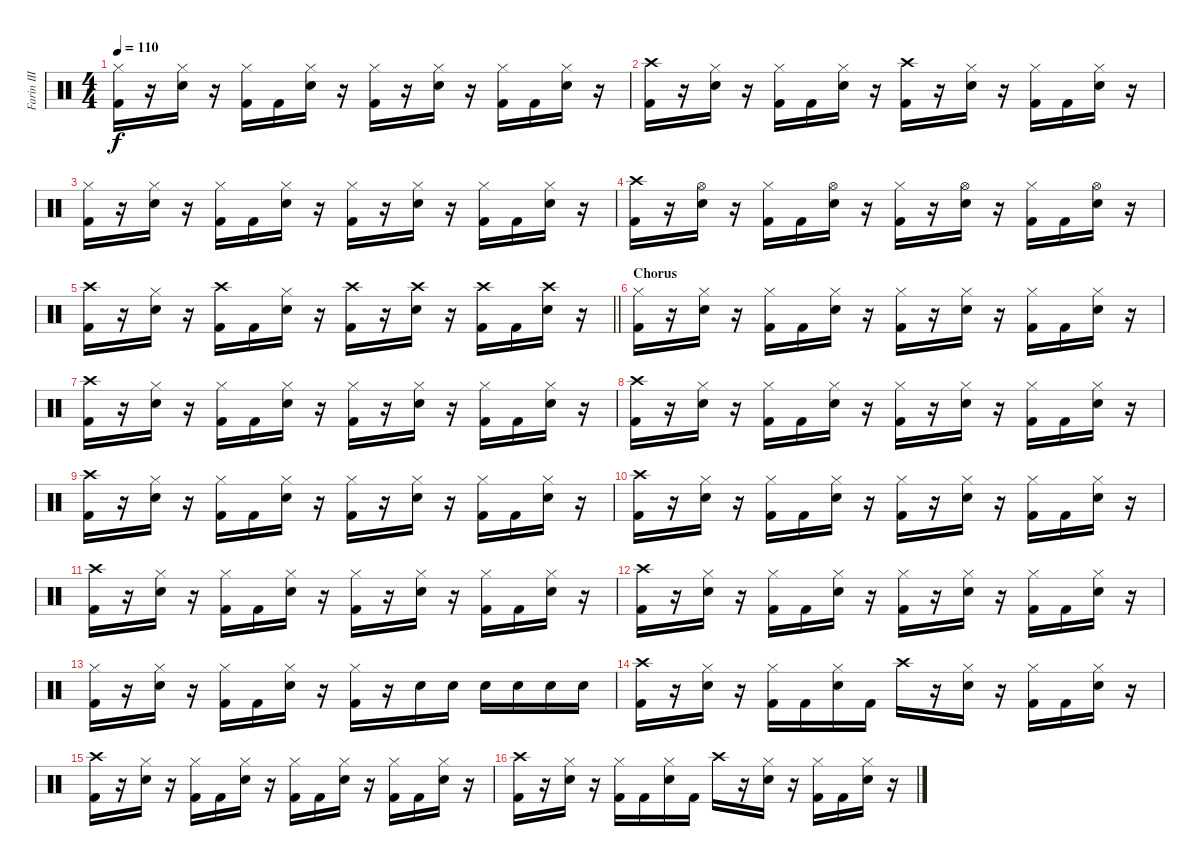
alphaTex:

\track ("Farin III" "Farin III") {instrument percussion}
\staff {score}
\articulation defaults
\ts (4 4)
\tempo 110
\clef neutral
\ks c
("Hi-Hat (closed)" "Kick (hit) 2").16{dy f} r.16 ("Hi-Hat (closed)" "Snare (hit) 2").16 r.16 ("Hi-Hat (closed)" "Kick (hit) 2").16 "Kick (hit) 2".16 ("Hi-Hat (closed)" "Snare (hit) 2").16 r.16 ("Hi-Hat (closed)" "Kick (hit) 2").16 r.16 ("Hi-Hat (closed)" "Snare (hit) 2").16 r.16 ("Hi-Hat (closed)" "Kick (hit) 2").16 "Kick (hit) 2".16 ("Hi-Hat (closed)" "Snare (hit) 2").16 r.16 |
("Crash high (hit)" "Kick (hit) 2").16 r.16 ("Hi-Hat (closed)" "Snare (hit) 2").16 r.16 ("Hi-Hat (closed)" "Kick (hit) 2").16 "Kick (hit) 2".16 ("Hi-Hat (closed)" "Snare (hit) 2").16 r.16 ("Crash high (hit)" "Kick (hit) 2").16 r.16 ("Hi-Hat (closed)" "Snare (hit) 2").16 r.16 ("Hi-Hat (closed)" "Kick (hit) 2").16 "Kick (hit) 2".16 ("Hi-Hat (closed)" "Snare (hit) 2").16 r.16 |
("Hi-Hat (closed)" "Kick (hit) 2").16 r.16 ("Hi-Hat (closed)" "Snare (hit) 2").16 r.16 ("Hi-Hat (closed)" "Kick (hit) 2").16 "Kick (hit) 2".16 ("Hi-Hat (closed)" "Snare (hit) 2").16 r.16 ("Hi-Hat (closed)" "Kick (hit) 2").16 r.16 ("Hi-Hat (closed)" "Snare (hit) 2").16 r.16 ("Hi-Hat (closed)" "Kick (hit) 2").16 "Kick (hit) 2".16 ("Hi-Hat (closed)" "Snare (hit) 2").16 r.16 |
("Crash high (hit)" "Kick (hit) 2").16 r.16 ("Hi-Hat (open)" "Snare (hit) 2").16 r.16 ("Hi-Hat (closed)" "Kick (hit) 2").16 "Kick (hit) 2".16 ("Hi-Hat (open)" "Snare (hit) 2").16 r.16 ("Hi-Hat (closed)" "Kick (hit) 2").16 r.16 ("Hi-Hat (open)" "Snare (hit) 2").16 r.16 ("Hi-Hat (closed)" "Kick (hit) 2").16 "Kick (hit) 2".16 ("Hi-Hat (open)" "Snare (hit) 2").16 r.16 |
\barLineRight lightlight
("Crash high (hit)" "Kick (hit) 2").16 r.16 ("Hi-Hat (closed)" "Snare (hit) 2").16 r.16 ("Crash high (hit)" "Kick (hit) 2").16 "Kick (hit) 2".16 ("Hi-Hat (closed)" "Snare (hit) 2").16 r.16 ("Crash high (hit)" "Kick (hit) 2").16 r.16 ("Crash high (hit)" "Snare (hit) 2").16 r.16 ("Crash high (hit)" "Kick (hit) 2").16 "Kick (hit) 2".16 ("Crash high (hit)" "Snare (hit) 2").16 r.16 |
\section ("" "Chorus")
("Hi-Hat (closed)" "Kick (hit) 2").16 r.16 ("Hi-Hat (closed)" "Snare (hit) 2").16 r.16 ("Hi-Hat (closed)" "Kick (hit) 2").16 "Kick (hit) 2".16 ("Hi-Hat (closed)" "Snare (hit) 2").16 r.16 ("Hi-Hat (closed)" "Kick (hit) 2").16 r.16 ("Hi-Hat (closed)" "Snare (hit) 2").16 r.16 ("Hi-Hat (closed)" "Kick (hit) 2").16 "Kick (hit) 2".16 ("Hi-Hat (closed)" "Snare (hit) 2").16 r.16 |
("Crash high (hit)" "Kick (hit) 2").16 r.16 ("Hi-Hat (closed)" "Snare (hit) 2").16 r.16 ("Hi-Hat (closed)" "Kick (hit) 2").16 "Kick (hit) 2".16 ("Hi-Hat (closed)" "Snare (hit) 2").16 r.16 ("Hi-Hat (closed)" "Kick (hit) 2").16 r.16 ("Hi-Hat (closed)" "Snare (hit) 2").16 r.16 ("Hi-Hat (closed)" "Kick (hit) 2").16 "Kick (hit) 2".16 ("Hi-Hat (closed)" "Snare (hit) 2").16 r.16 |
("Crash high (hit)" "Kick (hit) 2").16 r.16 ("Hi-Hat (closed)" "Snare (hit) 2").16 r.16 ("Hi-Hat (closed)" "Kick (hit) 2").16 "Kick (hit) 2".16 ("Hi-Hat (closed)" "Snare (hit) 2").16 r.16 ("Hi-Hat (closed)" "Kick (hit) 2").16 r.16 ("Hi-Hat (closed)" "Snare (hit) 2").16 r.16 ("Hi-Hat (closed)" "Kick (hit) 2").16 "Kick (hit) 2".16 ("Hi-Hat (closed)" "Snare (hit) 2").16 r.16 |
("Crash high (hit)" "Kick (hit) 2").16 r.16 ("Hi-Hat (closed)" "Snare (hit) 2").16 r.16 ("Hi-Hat (closed)" "Kick (hit) 2").16 "Kick (hit) 2".16 ("Hi-Hat (closed)" "Snare (hit) 2").16 r.16 ("Hi-Hat (closed)" "Kick (hit) 2").16 r.16 ("Hi-Hat (closed)" "Snare (hit) 2").16 r.16 ("Hi-Hat (closed)" "Kick (hit) 2").16 "Kick (hit) 2".16 ("Hi-Hat (closed)" "Snare (hit) 2").16 r.16 |
("Crash high (hit)" "Kick (hit) 2").16 r.16 ("Hi-Hat (closed)" "Snare (hit) 2").16 r.16 ("Hi-Hat (closed)" "Kick (hit) 2").16 "Kick (hit) 2".16 ("Hi-Hat (closed)" "Snare (hit) 2").16 r.16 ("Hi-Hat (closed)" "Kick (hit) 2").16 r.16 ("Hi-Hat (closed)" "Snare (hit) 2").16 r.16 ("Hi-Hat (closed)" "Kick (hit) 2").16 "Kick (hit) 2".16 ("Hi-Hat (closed)" "Snare (hit) 2").16 r.16 |
("Crash high (hit)" "Kick (hit) 2").16 r.16 ("Hi-Hat (closed)" "Snare (hit) 2").16 r.16 ("Hi-Hat (closed)" "Kick (hit) 2").16 "Kick (hit) 2".16 ("Hi-Hat (closed)" "Snare (hit) 2").16 r.16 ("Hi-Hat (closed)" "Kick (hit) 2").16 r.16 ("Hi-Hat (closed)" "Snare (hit) 2").16 r.16 ("Hi-Hat (closed)" "Kick (hit) 2").16 "Kick (hit) 2".16 ("Hi-Hat (closed)" "Snare (hit) 2").16 r.16 |
("Crash high (hit)" "Kick (hit) 2").16 r.16 ("Hi-Hat (closed)" "Snare (hit) 2").16 r.16 ("Hi-Hat (closed)" "Kick (hit) 2").16 "Kick (hit) 2".16 ("Hi-Hat (closed)" "Snare (hit) 2").16 r.16 ("Hi-Hat (closed)" "Kick (hit) 2").16 r.16 ("Hi-Hat (closed)" "Snare (hit) 2").16 r.16 ("Hi-Hat (closed)" "Kick (hit) 2").16 "Kick (hit) 2".16 ("Hi-Hat (closed)" "Snare (hit) 2").16 r.16 |
("Hi-Hat (closed)" "Kick (hit) 2").16 r.16 ("Hi-Hat (closed)" "Snare (hit) 2").16 r.16 ("Hi-Hat (closed)" "Kick (hit) 2").16 "Kick (hit) 2".16 ("Hi-Hat (closed)" "Snare (hit) 2").16 r.16 ("Hi-Hat (closed)" "Kick (hit) 2").16 r.16 "Snare (hit) 2".16 "Snare (hit) 2".16 "Snare (hit) 2".16 "Snare (hit) 2".16 "Snare (hit) 2".16 "Snare (hit) 2".16 |
("Crash high (hit)" "Kick (hit) 2").16 r.16 ("Hi-Hat (closed)" "Snare (hit) 2").16 r.16 ("Hi-Hat (closed)" "Kick (hit) 2").16 "Kick (hit) 2".16 ("Hi-Hat (closed)" "Snare (hit) 2").16 "Kick (hit) 2".16 "Crash high (hit)".16 r.16 ("Hi-Hat (closed)" "Snare (hit) 2").16 r.16 ("Hi-Hat (closed)" "Kick (hit) 2").16 "Kick (hit) 2".16 ("Hi-Hat (closed)" "Snare (hit) 2").16 r.16 |
("Crash high (hit)" "Kick (hit) 2").16 r.16 ("Hi-Hat (closed)" "Snare (hit) 2").16 r.16 ("Hi-Hat (closed)" "Kick (hit) 2").16 "Kick (hit) 2".16 ("Hi-Hat (closed)" "Snare (hit) 2").16 r.16 ("Hi-Hat (closed)" "Kick (hit) 2").16 "Kick (hit) 2".16 ("Hi-Hat (closed)" "Snare (hit) 2").16 r.16 ("Hi-Hat (closed)" "Kick (hit) 2").16 "Kick (hit) 2".16 ("Hi-Hat (closed)" "Snare (hit) 2").16 r.16 |
("Crash high (hit)" "Kick (hit) 2").16 r.16 ("Hi-Hat (closed)" "Snare (hit) 2").16 r.16 ("Hi-Hat (closed)" "Kick (hit) 2").16 "Kick (hit) 2".16 ("Hi-Hat (closed)" "Snare (hit) 2").16 "Kick (hit) 2".16 "Crash high (hit)".16 r.16 ("Hi-Hat (closed)" "Snare (hit) 2").16 r.16 ("Hi-Hat (closed)" "Kick (hit) 2").16 "Kick (hit) 2".16 ("Hi-Hat (closed)" "Snare (hit) 2").16 r.16
